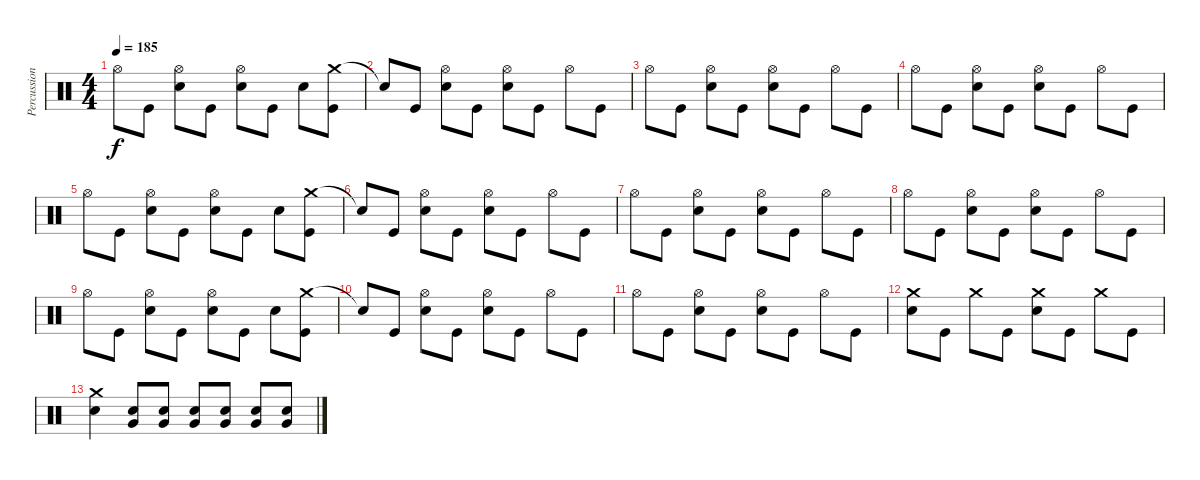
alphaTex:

\track ("Percussion" "Percussion") {instrument percussion}
\staff {score}
\articulation defaults
\ts (4 4)
\tempo 185
\clef neutral
\ks c "Hi-Hat (open)".8{dy f} "Kick (hit)".8
("Hi-Hat (open)" "Electric Snare (hit)").8 "Kick (hit)".8 ("Hi-Hat (open)" "Electric Snare (hit)").8 "Kick (hit)".8 "Electric Snare (hit)".8 ("Crash medium (hit)" "Kick (hit)").8 |
"Snare (hit)"{t}.8 "Kick (hit)".8 ("Hi-Hat (open)" "Electric Snare (hit)").8 "Kick (hit)".8 ("Hi-Hat (open)" "Electric Snare (hit)").8 "Kick (hit)".8 "Hi-Hat (open)".8 "Kick (hit)".8 |
"Hi-Hat (open)".8 "Kick (hit)".8 ("Hi-Hat (open)" "Electric Snare (hit)").8 "Kick (hit)".8 ("Hi-Hat (open)" "Electric Snare (hit)").8 "Kick (hit)".8 "Hi-Hat (open)".8 "Kick (hit)".8 |
"Hi-Hat (open)".8 "Kick (hit)".8 ("Hi-Hat (open)" "Electric Snare (hit)").8 "Kick (hit)".8 ("Hi-Hat (open)" "Electric Snare (hit)").8 "Kick (hit)".8 "Hi-Hat (open)".8 "Kick (hit)".8 |
"Hi-Hat (open)".8 "Kick (hit)".8 ("Hi-Hat (open)" "Electric Snare (hit)").8 "Kick (hit)".8 ("Hi-Hat (open)" "Electric Snare (hit)").8 "Kick (hit)".8 "Electric Snare (hit)".8 ("Crash medium (hit)" "Kick (hit)").8 |
"Snare (hit)"{t}.8 "Kick (hit)".8 ("Hi-Hat (open)" "Electric Snare (hit)").8 "Kick (hit)".8 ("Hi-Hat (open)" "Electric Snare (hit)").8 "Kick (hit)".8 "Hi-Hat (open)".8 "Kick (hit)".8 |
"Hi-Hat (open)".8 "Kick (hit)".8 ("Hi-Hat (open)" "Electric Snare (hit)").8 "Kick (hit)".8 ("Hi-Hat (open)" "Electric Snare (hit)").8 "Kick (hit)".8 "Hi-Hat (open)".8 "Kick (hit)".8 |
"Hi-Hat (open)".8 "Kick (hit)".8 ("Hi-Hat (open)" "Electric Snare (hit)").8 "Kick (hit)".8 ("Hi-Hat (open)" "Electric Snare (hit)").8 "Kick (hit)".8 "Hi-Hat (open)".8 "Kick (hit)".8 |
"Hi-Hat (open)".8 "Kick (hit)".8 ("Hi-Hat (open)" "Electric Snare (hit)").8 "Kick (hit)".8 ("Hi-Hat (open)" "Electric Snare (hit)").8 "Kick (hit)".8 "Electric Snare (hit)".8 ("Crash medium (hit)" "Kick (hit)").8 |
"Snare (hit)"{t}.8 "Kick (hit)".8 ("Hi-Hat (open)" "Electric Snare (hit)").8 "Kick (hit)".8 ("Hi-Hat (open)" "Electric Snare (hit)").8 "Kick (hit)".8 "Hi-Hat (open)".8 "Kick (hit)".8 |
"Hi-Hat (open)".8 "Kick (hit)".8 ("Hi-Hat (open)" "Electric Snare (hit)").8 "Kick (hit)".8 ("Hi-Hat (open)" "Electric Snare (hit)").8 "Kick (hit)".8 "Hi-Hat (open)".8 "Kick (hit)".8 |
("Crash medium (hit)" "Electric Snare (hit)").8 "Kick (hit)".8 "Crash medium (hit)".8 "Kick (hit)".8 ("Crash medium (hit)" "Electric Snare (hit)").8 "Kick (hit)".8 "Crash medium (hit)".8 "Kick (hit)".8 |
("Crash medium (hit)" "Electric Snare (hit)").4 ("Electric Snare (hit)" "Very Low Tom (hit)").8{volume 9} ("Electric Snare (hit)" "Very Low Tom (hit)").8{volume 13} ("Electric Snare (hit)" "Very Low Tom (hit)").8 ("Electric Snare (hit)" "Very Low Tom (hit)").8 ("Electric Snare (hit)" "Very Low Tom (hit)").8 ("Electric Snare (hit)" "Very Low Tom (hit)").8
